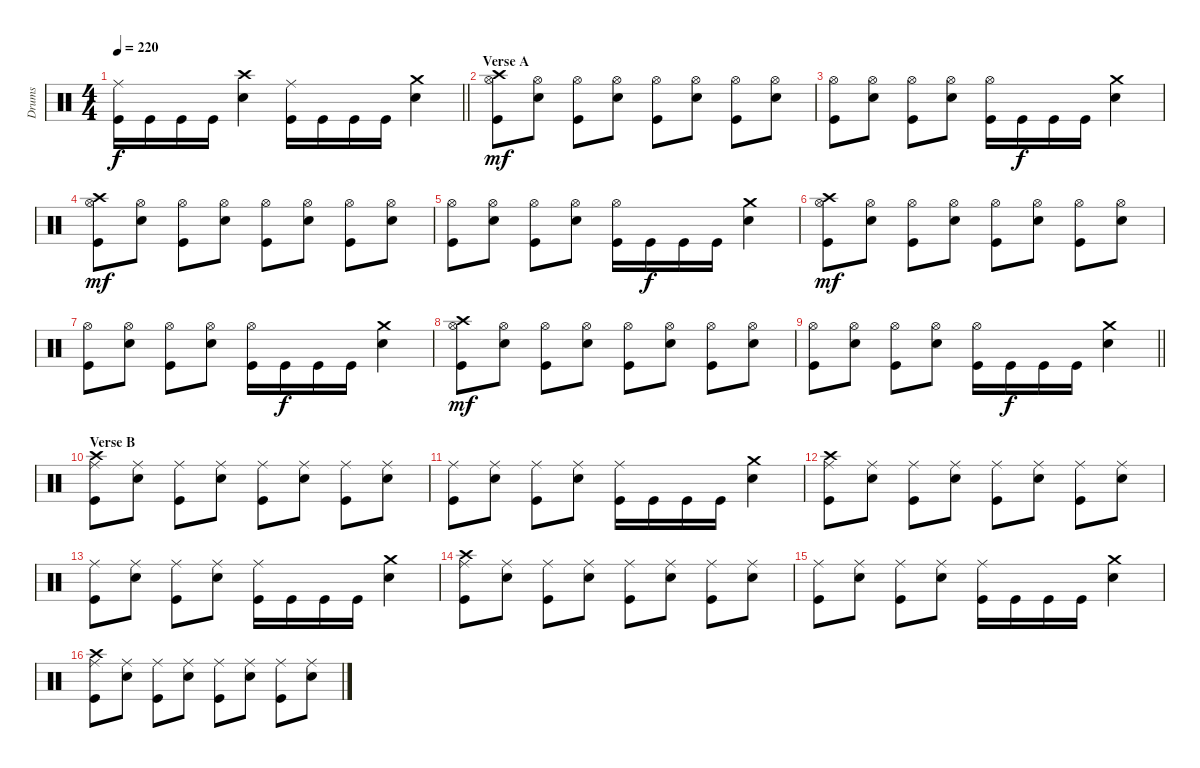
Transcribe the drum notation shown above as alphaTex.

\track ("Drums" "Drums") {instrument percussion}
\staff {score}
\articulation defaults
\ts (4 4)
\tempo 220
\clef neutral
\barLineRight lightlight
\ks c
("Ride (middle)" "Kick (hit)").16{dy f} "Kick (hit)".16 "Kick (hit)".16 "Kick (hit)".16 ("Crash high (hit)" "Electric Snare (hit)").4 ("Ride (middle)" "Kick (hit)").16 "Kick (hit)".16 "Kick (hit)".16 "Kick (hit)".16 ("Crash medium (hit)" "Electric Snare (hit)").4 |
\section ("" "Verse A")
("Crash high (hit)" "Hi-Hat (open)" "Kick (hit)").8{dy mf} ("Hi-Hat (open)" "Electric Snare (hit)").8 ("Hi-Hat (open)" "Kick (hit)").8 ("Hi-Hat (open)" "Electric Snare (hit)").8 ("Hi-Hat (open)" "Kick (hit)").8 ("Hi-Hat (open)" "Electric Snare (hit)").8 ("Hi-Hat (open)" "Kick (hit)").8 ("Hi-Hat (open)" "Electric Snare (hit)").8 |
("Hi-Hat (open)" "Kick (hit)").8 ("Hi-Hat (open)" "Electric Snare (hit)").8 ("Hi-Hat (open)" "Kick (hit)").8 ("Hi-Hat (open)" "Electric Snare (hit)").8 ("Hi-Hat (open)" "Kick (hit)").16 "Kick (hit)".16{dy f} "Kick (hit)".16 "Kick (hit)".16 ("Crash medium (hit)" "Electric Snare (hit)").4 |
("Crash high (hit)" "Hi-Hat (open)" "Kick (hit)").8{dy mf} ("Hi-Hat (open)" "Electric Snare (hit)").8 ("Hi-Hat (open)" "Kick (hit)").8 ("Hi-Hat (open)" "Electric Snare (hit)").8 ("Hi-Hat (open)" "Kick (hit)").8 ("Hi-Hat (open)" "Electric Snare (hit)").8 ("Hi-Hat (open)" "Kick (hit)").8 ("Hi-Hat (open)" "Electric Snare (hit)").8 |
("Hi-Hat (open)" "Kick (hit)").8 ("Hi-Hat (open)" "Electric Snare (hit)").8 ("Hi-Hat (open)" "Kick (hit)").8 ("Hi-Hat (open)" "Electric Snare (hit)").8 ("Hi-Hat (open)" "Kick (hit)").16 "Kick (hit)".16{dy f} "Kick (hit)".16 "Kick (hit)".16 ("Crash medium (hit)" "Electric Snare (hit)").4 |
("Crash high (hit)" "Hi-Hat (open)" "Kick (hit)").8{dy mf} ("Hi-Hat (open)" "Electric Snare (hit)").8 ("Hi-Hat (open)" "Kick (hit)").8 ("Hi-Hat (open)" "Electric Snare (hit)").8 ("Hi-Hat (open)" "Kick (hit)").8 ("Hi-Hat (open)" "Electric Snare (hit)").8 ("Hi-Hat (open)" "Kick (hit)").8 ("Hi-Hat (open)" "Electric Snare (hit)").8 |
("Hi-Hat (open)" "Kick (hit)").8 ("Hi-Hat (open)" "Electric Snare (hit)").8 ("Hi-Hat (open)" "Kick (hit)").8 ("Hi-Hat (open)" "Electric Snare (hit)").8 ("Hi-Hat (open)" "Kick (hit)").16 "Kick (hit)".16{dy f} "Kick (hit)".16 "Kick (hit)".16 ("Crash medium (hit)" "Electric Snare (hit)").4 |
("Crash high (hit)" "Hi-Hat (open)" "Kick (hit)").8{dy mf} ("Hi-Hat (open)" "Electric Snare (hit)").8 ("Hi-Hat (open)" "Kick (hit)").8 ("Hi-Hat (open)" "Electric Snare (hit)").8 ("Hi-Hat (open)" "Kick (hit)").8 ("Hi-Hat (open)" "Electric Snare (hit)").8 ("Hi-Hat (open)" "Kick (hit)").8 ("Hi-Hat (open)" "Electric Snare (hit)").8 |
\barLineRight lightlight
("Hi-Hat (open)" "Kick (hit)").8 ("Hi-Hat (open)" "Electric Snare (hit)").8 ("Hi-Hat (open)" "Kick (hit)").8 ("Hi-Hat (open)" "Electric Snare (hit)").8 ("Hi-Hat (open)" "Kick (hit)").16 "Kick (hit)".16{dy f} "Kick (hit)".16 "Kick (hit)".16 ("Crash medium (hit)" "Electric Snare (hit)").4 |
\section ("" "Verse B")
("Crash high (hit)" "Ride (middle)" "Kick (hit)").8 ("Ride (middle)" "Electric Snare (hit)").8 ("Ride (middle)" "Kick (hit)").8 ("Ride (middle)" "Electric Snare (hit)").8 ("Ride (middle)" "Kick (hit)").8 ("Ride (middle)" "Electric Snare (hit)").8 ("Ride (middle)" "Kick (hit)").8 ("Ride (middle)" "Electric Snare (hit)").8 |
("Ride (middle)" "Kick (hit)").8 ("Ride (middle)" "Electric Snare (hit)").8 ("Ride (middle)" "Kick (hit)").8 ("Ride (middle)" "Electric Snare (hit)").8 ("Ride (middle)" "Kick (hit)").16 "Kick (hit)".16 "Kick (hit)".16 "Kick (hit)".16 ("Crash medium (hit)" "Electric Snare (hit)").4 |
("Crash high (hit)" "Ride (middle)" "Kick (hit)").8 ("Ride (middle)" "Electric Snare (hit)").8 ("Ride (middle)" "Kick (hit)").8 ("Ride (middle)" "Electric Snare (hit)").8 ("Ride (middle)" "Kick (hit)").8 ("Ride (middle)" "Electric Snare (hit)").8 ("Ride (middle)" "Kick (hit)").8 ("Ride (middle)" "Electric Snare (hit)").8 |
("Ride (middle)" "Kick (hit)").8 ("Ride (middle)" "Electric Snare (hit)").8 ("Ride (middle)" "Kick (hit)").8 ("Ride (middle)" "Electric Snare (hit)").8 ("Ride (middle)" "Kick (hit)").16 "Kick (hit)".16 "Kick (hit)".16 "Kick (hit)".16 ("Crash medium (hit)" "Electric Snare (hit)").4 |
("Crash high (hit)" "Ride (middle)" "Kick (hit)").8 ("Ride (middle)" "Electric Snare (hit)").8 ("Ride (middle)" "Kick (hit)").8 ("Ride (middle)" "Electric Snare (hit)").8 ("Ride (middle)" "Kick (hit)").8 ("Ride (middle)" "Electric Snare (hit)").8 ("Ride (middle)" "Kick (hit)").8 ("Ride (middle)" "Electric Snare (hit)").8 |
("Ride (middle)" "Kick (hit)").8 ("Ride (middle)" "Electric Snare (hit)").8 ("Ride (middle)" "Kick (hit)").8 ("Ride (middle)" "Electric Snare (hit)").8 ("Ride (middle)" "Kick (hit)").16 "Kick (hit)".16 "Kick (hit)".16 "Kick (hit)".16 ("Crash medium (hit)" "Electric Snare (hit)").4 |
("Crash high (hit)" "Ride (middle)" "Kick (hit)").8 ("Ride (middle)" "Electric Snare (hit)").8 ("Ride (middle)" "Kick (hit)").8 ("Ride (middle)" "Electric Snare (hit)").8 ("Ride (middle)" "Kick (hit)").8 ("Ride (middle)" "Electric Snare (hit)").8 ("Ride (middle)" "Kick (hit)").8 ("Ride (middle)" "Electric Snare (hit)").8
